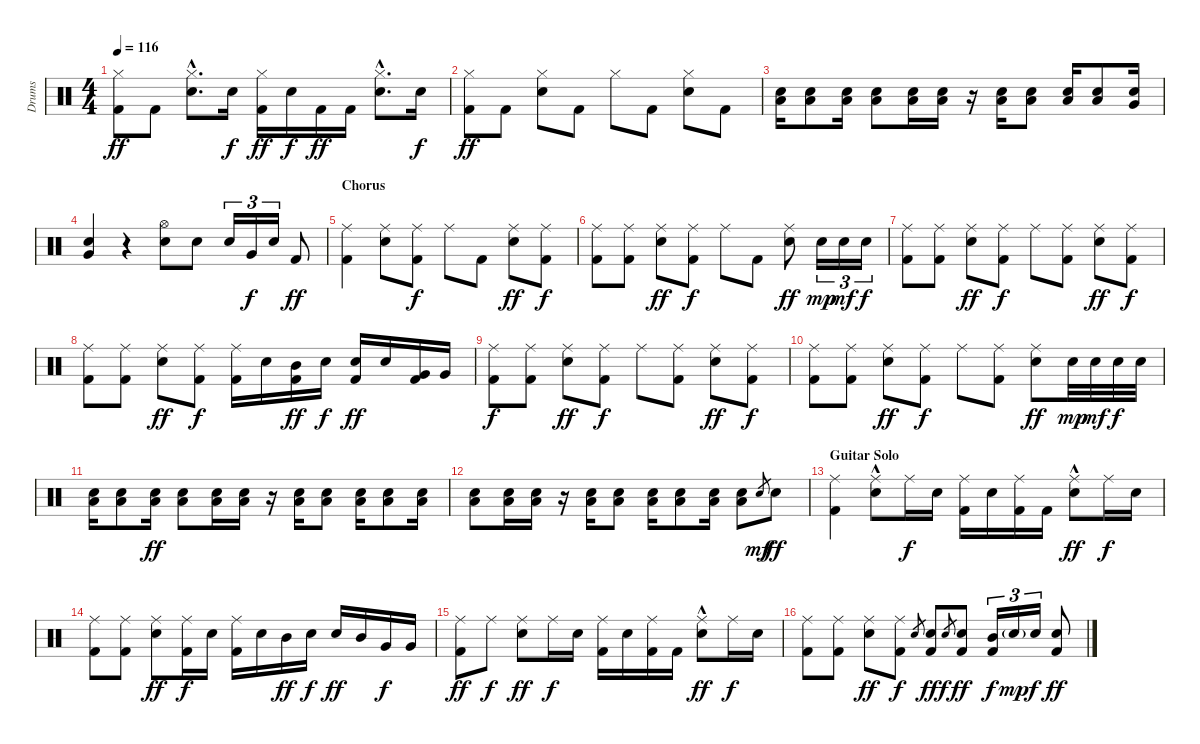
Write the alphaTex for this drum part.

\track ("Drums" "Drums") {instrument percussion}
\staff {score}
\articulation defaults
\ts (4 4)
\tempo 116
\clef neutral
\ks c
("Hi-Hat (closed)" "Kick (hit) 2").8{dy ff} "Kick (hit) 2".8 ("Hi-Hat (closed)" "Electric Snare (hit)"{hac}).8{d} "Electric Snare (hit)".16{dy f} ("Hi-Hat (closed)" "Kick (hit) 2").16{dy ff} "Electric Snare (hit)".16{dy f} "Kick (hit) 2".16{dy ff} "Kick (hit) 2".16 ("Hi-Hat (closed)" "Electric Snare (hit)"{hac}).8{d} "Electric Snare (hit)".16{dy f} |
("Hi-Hat (closed)" "Kick (hit) 2").8{dy ff} "Kick (hit) 2".8 ("Hi-Hat (closed)" "Electric Snare (hit)").8 "Kick (hit) 2".8 "Hi-Hat (closed)".8 "Kick (hit) 2".8 ("Hi-Hat (closed)" "Electric Snare (hit)").8 "Kick (hit) 2".8 |
("Low Tom (hit)" "Electric Snare (hit)").16 ("Low Tom (hit)" "Electric Snare (hit)").8 ("Low Tom (hit)" "Electric Snare (hit)").16 ("Low Tom (hit)" "Electric Snare (hit)").8 ("Low Tom (hit)" "Electric Snare (hit)").16 ("Low Tom (hit)" "Electric Snare (hit)").16 r.16 ("Low Tom (hit)" "Electric Snare (hit)").16 ("Low Tom (hit)" "Electric Snare (hit)").8 ("Low Tom (hit)" "Electric Snare (hit)").16 ("Low Tom (hit)" "Electric Snare (hit)").8 ("Electric Snare (hit)" "Very Low Tom (hit)").16 |
("Electric Snare (hit)" "Very Low Tom (hit)").4 r.4 ("Hi-Hat (open)" "Electric Snare (hit)").8 "Electric Snare (hit)".8 "Electric Snare (hit)".16{tu (3 2)} "Very Low Tom (hit)".16{tu (3 2) dy f} "Electric Snare (hit)".16{tu (3 2)} "Kick (hit) 2".8{dy ff} |
\section ("" "Chorus")
("Ride (middle)" "Kick (hit) 2").4 ("Ride (middle)" "Electric Snare (hit)").8 ("Ride (middle)" "Kick (hit) 2").8{dy f} "Ride (middle)".8 "Kick (hit) 2".8 ("Ride (middle)" "Electric Snare (hit)").8{dy ff} ("Ride (middle)" "Kick (hit) 2").8{dy f} |
("Ride (middle)" "Kick (hit) 2").8 ("Ride (middle)" "Kick (hit) 2").8 ("Ride (middle)" "Electric Snare (hit)").8{dy ff} ("Ride (middle)" "Kick (hit) 2").8{dy f} "Ride (middle)".8 "Kick (hit) 2".8 ("Ride (middle)" "Electric Snare (hit)").8{dy ff} "Electric Snare (hit)".16{tu (3 2) dy mp} "Electric Snare (hit)".16{tu (3 2) dy mf} "Electric Snare (hit)".16{tu (3 2) dy f} |
("Ride (middle)" "Kick (hit) 2").8 ("Ride (middle)" "Kick (hit) 2").8 ("Ride (middle)" "Electric Snare (hit)").8{dy ff} ("Ride (middle)" "Kick (hit) 2").8{dy f} "Ride (middle)".8 ("Ride (middle)" "Kick (hit) 2").8 ("Ride (middle)" "Electric Snare (hit)").8{dy ff} ("Ride (middle)" "Kick (hit) 2").8{dy f} |
("Ride (middle)" "Kick (hit) 2").8 ("Ride (middle)" "Kick (hit) 2").8 ("Ride (middle)" "Electric Snare (hit)").8{dy ff} ("Ride (middle)" "Kick (hit) 2").8{dy f} ("Ride (middle)" "Kick (hit) 2").16 "Electric Snare (hit)".16 ("Mid Tom (hit)" "Kick (hit) 2").16{dy ff} "Electric Snare (hit)".16{dy f} ("Electric Snare (hit)" "Kick (hit) 2").16{dy ff} "Electric Snare (hit)".16 ("Very Low Tom (hit)" "Kick (hit) 2").16 "Very Low Tom (hit)".16 |
("Ride (middle)" "Kick (hit) 2").8{dy f} ("Ride (middle)" "Kick (hit) 2").8 ("Ride (middle)" "Electric Snare (hit)").8{dy ff} ("Ride (middle)" "Kick (hit) 2").8{dy f} "Ride (middle)".8 ("Ride (middle)" "Kick (hit) 2").8 ("Ride (middle)" "Electric Snare (hit)").8{dy ff} ("Ride (middle)" "Kick (hit) 2").8{dy f} |
("Ride (middle)" "Kick (hit) 2").8 ("Ride (middle)" "Kick (hit) 2").8 ("Ride (middle)" "Electric Snare (hit)").8{dy ff} ("Ride (middle)" "Kick (hit) 2").8{dy f} "Ride (middle)".8 ("Ride (middle)" "Kick (hit) 2").8 ("Ride (middle)" "Electric Snare (hit)").8{dy ff} "Electric Snare (hit)".32{dy mp} "Electric Snare (hit)".32{dy mf} "Electric Snare (hit)".32{dy f} "Electric Snare (hit)".32 |
("Low Tom (hit)" "Electric Snare (hit)").16 ("Low Tom (hit)" "Electric Snare (hit)").8 ("Low Tom (hit)" "Electric Snare (hit)").16{dy ff} ("Low Tom (hit)" "Electric Snare (hit)").8 ("Low Tom (hit)" "Electric Snare (hit)").16 ("Low Tom (hit)" "Electric Snare (hit)").16 r.16 ("Low Tom (hit)" "Electric Snare (hit)").16 ("Low Tom (hit)" "Electric Snare (hit)").8 ("Low Tom (hit)" "Electric Snare (hit)").16 ("Low Tom (hit)" "Electric Snare (hit)").8 ("Low Tom (hit)" "Electric Snare (hit)").16 |
("Low Tom (hit)" "Electric Snare (hit)").8 ("Low Tom (hit)" "Electric Snare (hit)").16 ("Low Tom (hit)" "Electric Snare (hit)").16 r.16 ("Low Tom (hit)" "Electric Snare (hit)").16 ("Low Tom (hit)" "Electric Snare (hit)").8 ("Low Tom (hit)" "Electric Snare (hit)").16 ("Low Tom (hit)" "Electric Snare (hit)").8 ("Low Tom (hit)" "Electric Snare (hit)").16 ("Low Tom (hit)" "Electric Snare (hit)").8 "Electric Snare (hit)".8{gr dy mf} "Electric Snare (hit)".8{dy ff} |
\section ("" "Guitar Solo")
("Ride (middle)" "Kick (hit) 2").4 ("Ride (middle)" "Electric Snare (hit)"{hac}).8 "Ride (middle)".16{dy f} "Electric Snare (hit)".16 ("Ride (middle)" "Kick (hit) 2").16 "Electric Snare (hit)".16 ("Ride (middle)" "Kick (hit) 2").16 "Kick (hit) 2".16 ("Ride (middle)" "Electric Snare (hit)"{hac}).8{dy ff} "Ride (middle)".16{dy f} "Electric Snare (hit)".16 |
("Ride (middle)" "Kick (hit) 2").8 ("Ride (middle)" "Kick (hit) 2").8 ("Ride (middle)" "Electric Snare (hit)").8{dy ff} ("Ride (middle)" "Kick (hit) 2").16{dy f} "Electric Snare (hit)".16 ("Ride (middle)" "Kick (hit) 2").16 "Electric Snare (hit)".16 "Mid Tom (hit)".16{dy ff} "Electric Snare (hit)".16{dy f} "Electric Snare (hit)".16{dy ff} "Mid Tom (hit)".16 "Very Low Tom (hit)".16{dy f} "Very Low Tom (hit)".16 |
("Ride (middle)" "Kick (hit) 2").8{dy ff} "Ride (middle)".8{dy f} ("Ride (middle)" "Electric Snare (hit)").8{dy ff} "Ride (middle)".16{dy f} "Electric Snare (hit)".16 ("Ride (middle)" "Kick (hit) 2").16 "Electric Snare (hit)".16 ("Ride (middle)" "Kick (hit) 2").16 "Kick (hit) 2".16 ("Ride (middle)" "Electric Snare (hit)"{hac}).8{dy ff} "Ride (middle)".16{dy f} "Electric Snare (hit)".16 |
("Ride (middle)" "Kick (hit) 2").8 ("Ride (middle)" "Kick (hit) 2").8 ("Ride (middle)" "Electric Snare (hit)").8{dy ff} ("Ride (middle)" "Kick (hit) 2").8{dy f} "Electric Snare (hit)"{h}.8{gr} ("Electric Snare (hit)" "Kick (hit) 2").8{dy ff} "Electric Snare (hit)"{h}.8{gr dy f} ("Electric Snare (hit)" "Kick (hit) 2").8{dy ff} ("Mid Tom (hit)" "Kick (hit) 2").16{tu (3 2) dy f} "Electric Snare (hit)"{g}.16{tu (3 2) dy mp} "Electric Snare (hit)".16{tu (3 2) dy f} ("Electric Snare (hit)" "Kick (hit) 2").8{dy ff}
